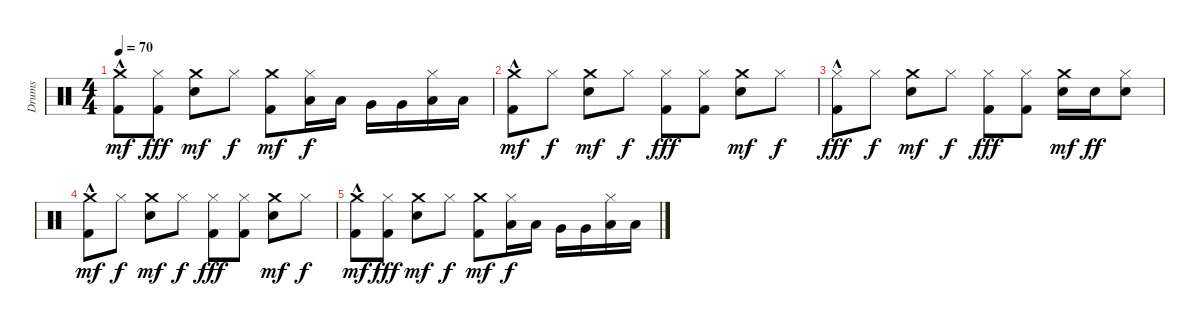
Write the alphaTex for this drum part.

\track ("Drums" "Drums") {instrument percussion}
\staff {score}
\articulation defaults
\ts (4 4)
\tempo 70
\clef neutral
\ks c
("Kick (hit) 2"{hac} "Crash medium (hit)").8{dy mf} ("Kick (hit) 2" "Hi-Hat (closed)").8{dy fff} ("Snare (hit) 2" "Crash medium (hit)").8{dy mf} "Hi-Hat (closed)".8{dy f} ("Kick (hit) 2" "Crash medium (hit)").8{dy mf} ("Low Tom (hit)" "Hi-Hat (closed)").16{dy f} "Low Tom (hit)".16 "Very Low Tom (hit)".16 "Very Low Tom (hit)".16 ("Low Floor Tom (hit)" "Hi-Hat (closed)").16 "Low Floor Tom (hit)".16 |
("Kick (hit) 2"{hac} "Crash medium (hit)").8{dy mf volume 5} "Hi-Hat (closed)".8{dy f} ("Snare (hit) 2" "Crash medium (hit)").8{dy mf} "Hi-Hat (closed)".8{dy f} ("Kick (hit) 2" "Hi-Hat (closed)").8{dy fff} ("Kick (hit) 2" "Hi-Hat (closed)").8 ("Snare (hit) 2" "Crash medium (hit)").8{dy mf} "Hi-Hat (closed)".8{dy f} |
("Kick (hit) 2"{hac} "Hi-Hat (closed)").8{dy fff} "Hi-Hat (closed)".8{dy f} ("Snare (hit) 2" "Crash medium (hit)").8{dy mf} "Hi-Hat (closed)".8{dy f} ("Kick (hit) 2" "Hi-Hat (closed)").8{dy fff} ("Kick (hit) 2" "Hi-Hat (closed)").8 ("Snare (hit) 2" "Crash medium (hit)").16{dy mf} "Snare (hit) 2".16{dy ff} ("Snare (hit) 2" "Hi-Hat (closed)").8 |
("Kick (hit) 2"{hac} "Crash medium (hit)").8{dy mf volume 0} "Hi-Hat (closed)".8{dy f} ("Snare (hit) 2" "Crash medium (hit)").8{dy mf} "Hi-Hat (closed)".8{dy f} ("Kick (hit) 2" "Hi-Hat (closed)").8{dy fff} ("Kick (hit) 2" "Hi-Hat (closed)").8 ("Snare (hit) 2" "Crash medium (hit)").8{dy mf} "Hi-Hat (closed)".8{dy f} |
("Kick (hit) 2"{hac} "Crash medium (hit)").8{dy mf} ("Kick (hit) 2" "Hi-Hat (closed)").8{dy fff} ("Snare (hit) 2" "Crash medium (hit)").8{dy mf} "Hi-Hat (closed)".8{dy f} ("Kick (hit) 2" "Crash medium (hit)").8{dy mf} ("Low Tom (hit)" "Hi-Hat (closed)").16{dy f} "Low Tom (hit)".16 "Very Low Tom (hit)".16 "Very Low Tom (hit)".16 ("Low Floor Tom (hit)" "Hi-Hat (closed)").16 "Low Floor Tom (hit)".16
